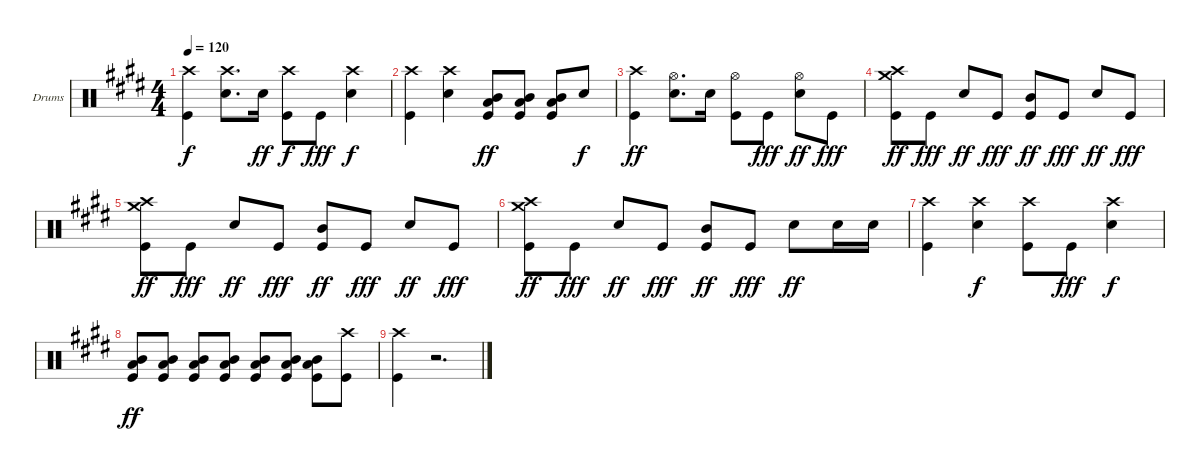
\defaultSystemsLayout 4
\bracketExtendMode groupsimilarinstruments
\firstSystemTrackNameOrientation horizontal
\otherSystemsTrackNameOrientation horizontal
\track ("Drums" "Drums") {instrument percussion}
\staff {score}
\articulation defaults
\ts (4 4)
\tempo 120
\clef neutral
\scale
1.06557
\ks e
("Crash high (hit)" "Kick (hit)").4{dy f} ("Crash high (hit)" "Snare (hit) 2").8{d} "Snare (hit) 2".16{dy ff} ("Crash high (hit)" "Kick (hit)").8{dy f} "Kick (hit)".8{dy fff} ("Crash high (hit)" "Snare (hit) 2").4{dy f} |
\scale
0.934426 ("Crash high (hit)" "Kick (hit)").4 ("Crash high (hit)" "Snare (hit) 2").4 ("Mid Tom (hit)" "Low Tom (hit)" "Kick (hit)").8{dy ff} ("Mid Tom (hit)" "Low Tom (hit)" "Kick (hit)").8 ("Mid Tom (hit)" "Low Tom (hit)" "Kick (hit)").8 "Snare (hit) 2".8{dy f} |
\scale
1.06557 ("Crash high (hit)" "Kick (hit)").4{dy ff} ("Hi-Hat (open)" "Snare (hit) 2").8{d} "Snare (hit) 2".16 ("Hi-Hat (open)" "Kick (hit)").8 "Kick (hit)".8{dy fff} ("Hi-Hat (open)" "Snare (hit) 2").8{dy ff} "Kick (hit)".8{dy fff} |
\scale
0.934426 ("Crash medium (hit)" "Crash high (hit)" "Kick (hit)").8{dy ff} "Kick (hit)".8{dy fff} "Snare (hit) 2".8{dy ff} "Kick (hit)".8{dy fff} ("Mid Tom (hit)" "Kick (hit)").8{dy ff} "Kick (hit)".8{dy fff} "Snare (hit) 2".8{dy ff} "Kick (hit)".8{dy fff} |
\scale
1.06557 ("Crash medium (hit)" "Crash high (hit)" "Kick (hit)").8{dy ff} "Kick (hit)".8{dy fff} "Snare (hit) 2".8{dy ff} "Kick (hit)".8{dy fff} ("Mid Tom (hit)" "Kick (hit)").8{dy ff} "Kick (hit)".8{dy fff} "Snare (hit) 2".8{dy ff} "Kick (hit)".8{dy fff} |
\scale
0.934426 ("Crash medium (hit)" "Crash high (hit)" "Kick (hit)").8{dy ff} "Kick (hit)".8{dy fff} "Snare (hit) 2".8{dy ff} "Kick (hit)".8{dy fff} ("Mid Tom (hit)" "Kick (hit)").8{dy ff} "Kick (hit)".8{dy fff} "Snare (hit) 2".8{dy ff} "Snare (hit) 2".16 "Snare (hit) 2".16 |
\scale
1.06557 ("Crash high (hit)" "Kick (hit)").4 ("Crash high (hit)" "Snare (hit) 2").4{dy f} ("Crash high (hit)" "Kick (hit)").8 "Kick (hit)".8{dy fff} ("Crash high (hit)" "Snare (hit) 2").4{dy f} |
\scale
0.934426 ("Mid Tom (hit)" "Low Tom (hit)" "Kick (hit)").8{dy ff} ("Mid Tom (hit)" "Low Tom (hit)" "Kick (hit)").8 ("Mid Tom (hit)" "Low Tom (hit)" "Kick (hit)").8 ("Mid Tom (hit)" "Low Tom (hit)" "Kick (hit)").8 ("Mid Tom (hit)" "Low Tom (hit)" "Kick (hit)").8 ("Mid Tom (hit)" "Low Tom (hit)" "Kick (hit)").8 ("Mid Tom (hit)" "Low Tom (hit)" "Kick (hit)").8 ("Crash high (hit)" "Kick (hit)").8 |
\scale
1.06557 ("Crash high (hit)" "Kick (hit)").4 r.2{d} |
\scale
0.934426
